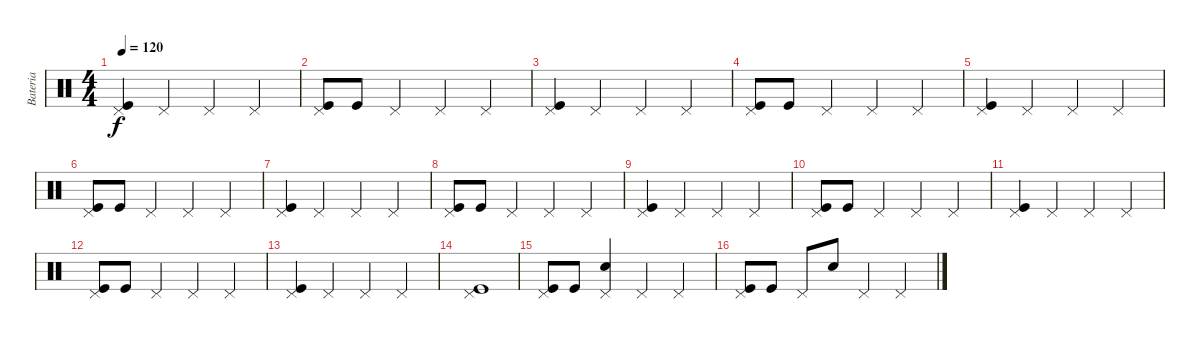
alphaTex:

\track ("Bateria" "Bateria") {instrument percussion}
\staff {score}
\articulation defaults
\ts (4 4)
\tempo 120
\clef neutral
\ks c
("Pedal Hi-Hat (hit)" "Kick (hit)").4{dy f} "Pedal Hi-Hat (hit)".4 "Pedal Hi-Hat (hit)".4 "Pedal Hi-Hat (hit)".4 |
("Pedal Hi-Hat (hit)" "Kick (hit)").8 "Kick (hit)".8 "Pedal Hi-Hat (hit)".4 "Pedal Hi-Hat (hit)".4 "Pedal Hi-Hat (hit)".4 |
("Pedal Hi-Hat (hit)" "Kick (hit)").4 "Pedal Hi-Hat (hit)".4 "Pedal Hi-Hat (hit)".4 "Pedal Hi-Hat (hit)".4 |
("Pedal Hi-Hat (hit)" "Kick (hit)").8 "Kick (hit)".8 "Pedal Hi-Hat (hit)".4 "Pedal Hi-Hat (hit)".4 "Pedal Hi-Hat (hit)".4 |
("Pedal Hi-Hat (hit)" "Kick (hit)").4 "Pedal Hi-Hat (hit)".4 "Pedal Hi-Hat (hit)".4 "Pedal Hi-Hat (hit)".4 |
("Pedal Hi-Hat (hit)" "Kick (hit)").8 "Kick (hit)".8 "Pedal Hi-Hat (hit)".4 "Pedal Hi-Hat (hit)".4 "Pedal Hi-Hat (hit)".4 |
("Pedal Hi-Hat (hit)" "Kick (hit)").4 "Pedal Hi-Hat (hit)".4 "Pedal Hi-Hat (hit)".4 "Pedal Hi-Hat (hit)".4 |
("Pedal Hi-Hat (hit)" "Kick (hit)").8 "Kick (hit)".8 "Pedal Hi-Hat (hit)".4 "Pedal Hi-Hat (hit)".4 "Pedal Hi-Hat (hit)".4 |
("Pedal Hi-Hat (hit)" "Kick (hit)").4 "Pedal Hi-Hat (hit)".4 "Pedal Hi-Hat (hit)".4 "Pedal Hi-Hat (hit)".4 |
("Pedal Hi-Hat (hit)" "Kick (hit)").8 "Kick (hit)".8 "Pedal Hi-Hat (hit)".4 "Pedal Hi-Hat (hit)".4 "Pedal Hi-Hat (hit)".4 |
("Pedal Hi-Hat (hit)" "Kick (hit)").4 "Pedal Hi-Hat (hit)".4 "Pedal Hi-Hat (hit)".4 "Pedal Hi-Hat (hit)".4 |
("Pedal Hi-Hat (hit)" "Kick (hit)").8 "Kick (hit)".8 "Pedal Hi-Hat (hit)".4 "Pedal Hi-Hat (hit)".4 "Pedal Hi-Hat (hit)".4 |
("Pedal Hi-Hat (hit)" "Kick (hit)").4 "Pedal Hi-Hat (hit)".4 "Pedal Hi-Hat (hit)".4 "Pedal Hi-Hat (hit)".4 |
("Pedal Hi-Hat (hit)" "Kick (hit)").1 |
("Pedal Hi-Hat (hit)" "Kick (hit)").8 "Kick (hit)".8 ("Pedal Hi-Hat (hit)" "Snare (hit) 2").4 "Pedal Hi-Hat (hit)".4 "Pedal Hi-Hat (hit)".4 |
("Pedal Hi-Hat (hit)" "Kick (hit)").8 "Kick (hit)".8 "Pedal Hi-Hat (hit)".8 "Snare (hit) 2".8 "Pedal Hi-Hat (hit)".4 "Pedal Hi-Hat (hit)".4
